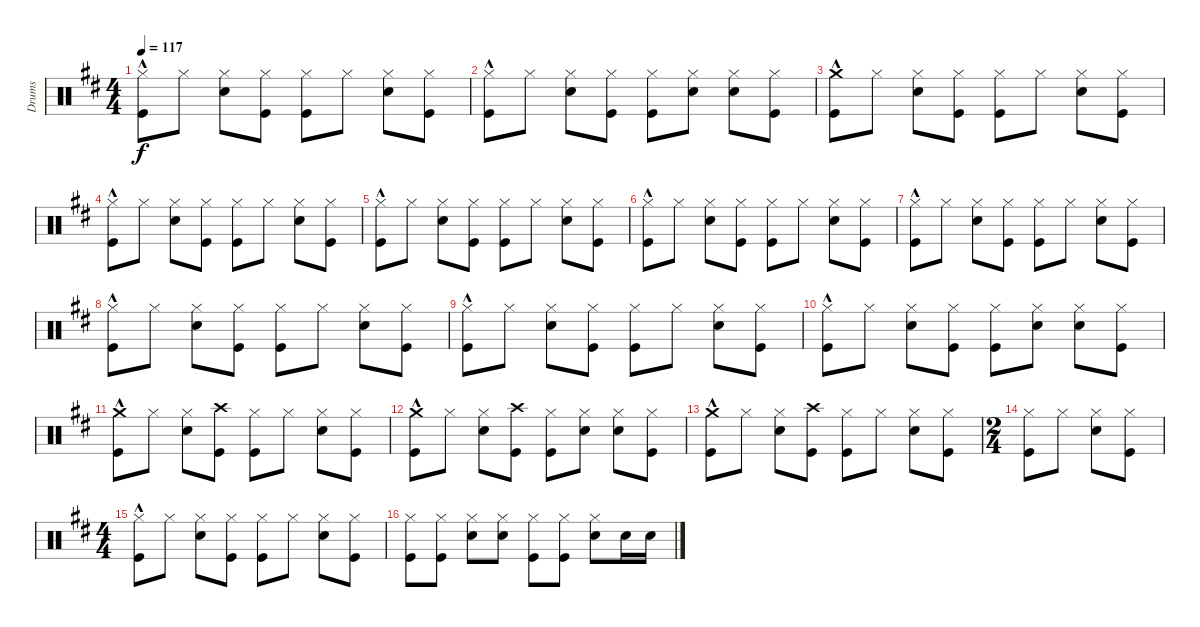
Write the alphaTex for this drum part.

\track ("Drums" "Drums") {instrument percussion}
\staff {score}
\articulation defaults
\ts (4 4)
\tempo 117
\clef neutral
\ks d
("Hi-Hat (closed)"{hac} "Kick (hit)").8{dy f} "Hi-Hat (closed)".8 ("Hi-Hat (closed)" "Snare (hit) 2").8 ("Hi-Hat (closed)" "Kick (hit)").8 ("Hi-Hat (closed)" "Kick (hit)").8 "Hi-Hat (closed)".8 ("Hi-Hat (closed)" "Snare (hit) 2").8 ("Hi-Hat (closed)" "Kick (hit)").8 |
("Hi-Hat (closed)"{hac} "Kick (hit)").8 "Hi-Hat (closed)".8 ("Hi-Hat (closed)" "Snare (hit) 2").8 ("Hi-Hat (closed)" "Kick (hit)").8 ("Hi-Hat (closed)" "Kick (hit)").8 ("Hi-Hat (closed)" "Snare (hit) 2").8 ("Hi-Hat (closed)" "Snare (hit) 2").8 ("Hi-Hat (closed)" "Kick (hit)").8 |
("Crash medium (hit)"{hac} "Kick (hit)").8 "Hi-Hat (closed)".8 ("Hi-Hat (closed)" "Snare (hit) 2").8 ("Hi-Hat (closed)" "Kick (hit)").8 ("Hi-Hat (closed)" "Kick (hit)").8 "Hi-Hat (closed)".8 ("Hi-Hat (closed)" "Snare (hit) 2").8 ("Hi-Hat (closed)" "Kick (hit)").8 |
("Hi-Hat (closed)"{hac} "Kick (hit)").8 "Hi-Hat (closed)".8 ("Hi-Hat (closed)" "Snare (hit) 2").8 ("Hi-Hat (closed)" "Kick (hit)").8 ("Hi-Hat (closed)" "Kick (hit)").8 "Hi-Hat (closed)".8 ("Hi-Hat (closed)" "Snare (hit) 2").8 ("Hi-Hat (closed)" "Kick (hit)").8 |
("Hi-Hat (closed)"{hac} "Kick (hit)").8 "Hi-Hat (closed)".8 ("Hi-Hat (closed)" "Snare (hit) 2").8 ("Hi-Hat (closed)" "Kick (hit)").8 ("Hi-Hat (closed)" "Kick (hit)").8 "Hi-Hat (closed)".8 ("Hi-Hat (closed)" "Snare (hit) 2").8 ("Hi-Hat (closed)" "Kick (hit)").8 |
("Hi-Hat (closed)"{hac} "Kick (hit)").8 "Hi-Hat (closed)".8 ("Hi-Hat (closed)" "Snare (hit) 2").8 ("Hi-Hat (closed)" "Kick (hit)").8 ("Hi-Hat (closed)" "Kick (hit)").8 "Hi-Hat (closed)".8 ("Hi-Hat (closed)" "Snare (hit) 2").8 ("Hi-Hat (closed)" "Kick (hit)").8 |
("Hi-Hat (closed)"{hac} "Kick (hit)").8 "Hi-Hat (closed)".8 ("Hi-Hat (closed)" "Snare (hit) 2").8 ("Hi-Hat (closed)" "Kick (hit)").8 ("Hi-Hat (closed)" "Kick (hit)").8 "Hi-Hat (closed)".8 ("Hi-Hat (closed)" "Snare (hit) 2").8 ("Hi-Hat (closed)" "Kick (hit)").8 |
("Hi-Hat (closed)"{hac} "Kick (hit)").8 "Hi-Hat (closed)".8 ("Hi-Hat (closed)" "Snare (hit) 2").8 ("Hi-Hat (closed)" "Kick (hit)").8 ("Hi-Hat (closed)" "Kick (hit)").8 "Hi-Hat (closed)".8 ("Hi-Hat (closed)" "Snare (hit) 2").8 ("Hi-Hat (closed)" "Kick (hit)").8 |
("Hi-Hat (closed)"{hac} "Kick (hit)").8 "Hi-Hat (closed)".8 ("Hi-Hat (closed)" "Snare (hit) 2").8 ("Hi-Hat (closed)" "Kick (hit)").8 ("Hi-Hat (closed)" "Kick (hit)").8 "Hi-Hat (closed)".8 ("Hi-Hat (closed)" "Snare (hit) 2").8 ("Hi-Hat (closed)" "Kick (hit)").8 |
("Hi-Hat (closed)"{hac} "Kick (hit)").8 "Hi-Hat (closed)".8 ("Hi-Hat (closed)" "Snare (hit) 2").8 ("Hi-Hat (closed)" "Kick (hit)").8 ("Hi-Hat (closed)" "Kick (hit)").8 ("Hi-Hat (closed)" "Snare (hit) 2").8 ("Hi-Hat (closed)" "Snare (hit) 2").8 ("Hi-Hat (closed)" "Kick (hit)").8 |
("Crash medium (hit)"{hac} "Kick (hit)").8 "Hi-Hat (closed)".8 ("Hi-Hat (closed)" "Snare (hit) 2").8 ("Crash high (hit)" "Kick (hit)").8 ("Hi-Hat (closed)" "Kick (hit)").8 "Hi-Hat (closed)".8 ("Hi-Hat (closed)" "Snare (hit) 2").8 ("Hi-Hat (closed)" "Kick (hit)").8 |
("Crash medium (hit)"{hac} "Kick (hit)").8 "Hi-Hat (closed)".8 ("Hi-Hat (closed)" "Snare (hit) 2").8 ("Crash high (hit)" "Kick (hit)").8 ("Hi-Hat (closed)" "Kick (hit)").8 ("Hi-Hat (closed)" "Snare (hit) 2").8 ("Hi-Hat (closed)" "Snare (hit) 2").8 ("Hi-Hat (closed)" "Kick (hit)").8 |
("Crash medium (hit)"{hac} "Kick (hit)").8 "Hi-Hat (closed)".8 ("Hi-Hat (closed)" "Snare (hit) 2").8 ("Crash high (hit)" "Kick (hit)").8 ("Hi-Hat (closed)" "Kick (hit)").8 "Hi-Hat (closed)".8 ("Hi-Hat (closed)" "Snare (hit) 2").8 ("Hi-Hat (closed)" "Kick (hit)").8 |
\ts (2 4)
("Hi-Hat (closed)" "Kick (hit)").8 "Hi-Hat (closed)".8 ("Hi-Hat (closed)" "Snare (hit) 2").8 ("Hi-Hat (closed)" "Kick (hit)").8 |
\ts (4 4)
("Hi-Hat (closed)"{hac} "Kick (hit)").8 "Hi-Hat (closed)".8 ("Hi-Hat (closed)" "Snare (hit) 2").8 ("Hi-Hat (closed)" "Kick (hit)").8 ("Hi-Hat (closed)" "Kick (hit)").8 "Hi-Hat (closed)".8 ("Hi-Hat (closed)" "Snare (hit) 2").8 ("Hi-Hat (closed)" "Kick (hit)").8 |
("Hi-Hat (closed)" "Kick (hit)").8 ("Hi-Hat (closed)" "Kick (hit)").8 ("Hi-Hat (closed)" "Snare (hit) 2").8 ("Hi-Hat (closed)" "Snare (hit) 2").8 ("Hi-Hat (closed)" "Kick (hit)").8 ("Hi-Hat (closed)" "Kick (hit)").8 ("Hi-Hat (closed)" "Snare (hit) 2").8 "Snare (hit) 2".16 "Snare (hit) 2".16
